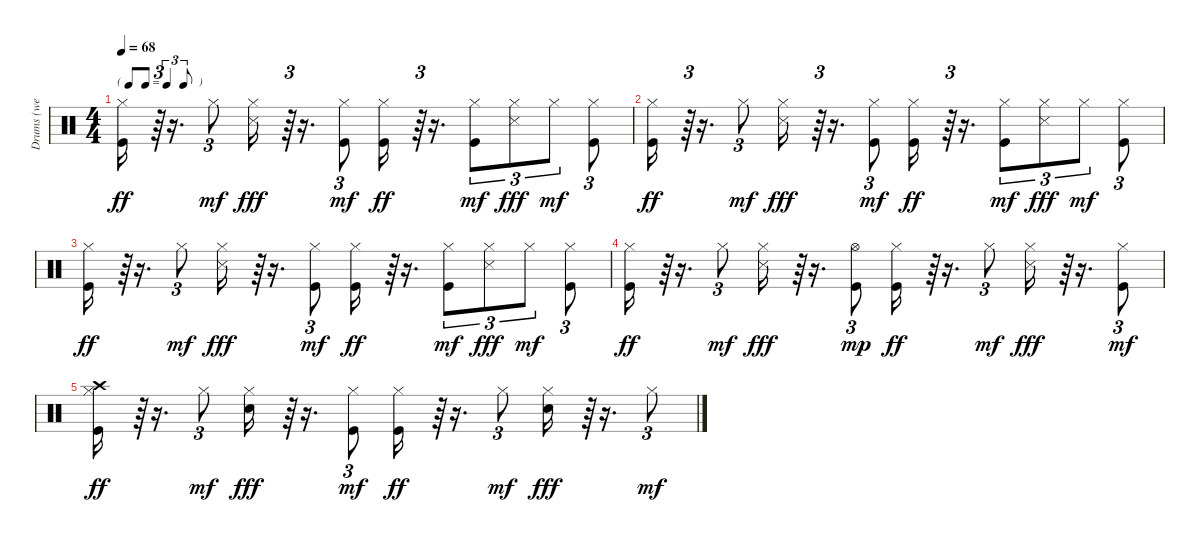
\track (" Drums (well Duh!)" " Drums (we") {instrument percussion}
\staff {score}
\articulation defaults
\ts (4 4)
\tf triplet8th
\tempo 68
\clef neutral
\ks c
("Kick (hit)" "Hi-Hat (closed)").16{dy ff} r.64{tu (3 2)} r.16{d} "Hi-Hat (closed)".8{tu (3 2) dy mf} ("Hi-Hat (closed)" "Snare (side stick) 3").16{dy fff} r.64{tu (3 2)} r.16{d} ("Kick (hit)" "Hi-Hat (closed)").8{tu (3 2) dy mf} ("Kick (hit)" "Hi-Hat (closed)").16{dy ff} r.64{tu (3 2)} r.16{d} ("Kick (hit)" "Hi-Hat (closed)").8{tu (3 2) dy mf} ("Hi-Hat (closed)" "Snare (side stick) 3").8{tu (3 2) dy fff} "Hi-Hat (closed)".8{tu (3 2) dy mf} ("Kick (hit)" "Hi-Hat (closed)").8{tu (3 2)} |
("Kick (hit)" "Hi-Hat (closed)").16{dy ff} r.64{tu (3 2)} r.16{d} "Hi-Hat (closed)".8{tu (3 2) dy mf} ("Hi-Hat (closed)" "Snare (side stick) 3").16{dy fff} r.64{tu (3 2)} r.16{d} ("Kick (hit)" "Hi-Hat (closed)").8{tu (3 2) dy mf} ("Kick (hit)" "Hi-Hat (closed)").16{dy ff} r.64{tu (3 2)} r.16{d} ("Kick (hit)" "Hi-Hat (closed)").8{tu (3 2) dy mf} ("Hi-Hat (closed)" "Snare (side stick) 3").8{tu (3 2) dy fff} "Hi-Hat (closed)".8{tu (3 2) dy mf} ("Kick (hit)" "Hi-Hat (closed)").8{tu (3 2)} |
("Kick (hit)" "Hi-Hat (closed)").16{dy ff} r.64{tu (3 2)} r.16{d} "Hi-Hat (closed)".8{tu (3 2) dy mf} ("Hi-Hat (closed)" "Snare (side stick) 3").16{dy fff} r.64{tu (3 2)} r.16{d} ("Kick (hit)" "Hi-Hat (closed)").8{tu (3 2) dy mf} ("Kick (hit)" "Hi-Hat (closed)").16{dy ff} r.64{tu (3 2)} r.16{d} ("Kick (hit)" "Hi-Hat (closed)").8{tu (3 2) dy mf} ("Hi-Hat (closed)" "Snare (side stick) 3").8{tu (3 2) dy fff} "Hi-Hat (closed)".8{tu (3 2) dy mf} ("Kick (hit)" "Hi-Hat (closed)").8{tu (3 2)} |
("Kick (hit)" "Hi-Hat (closed)").16{dy ff} r.64{tu (3 2)} r.16{d} "Hi-Hat (closed)".8{tu (3 2) dy mf} ("Hi-Hat (closed)" "Snare (side stick) 3").16{dy fff} r.64{tu (3 2)} r.16{d} ("Kick (hit)" "Hi-Hat (open)").8{tu (3 2) dy mp} ("Kick (hit)" "Hi-Hat (closed)").16{dy ff} r.64{tu (3 2)} r.16{d} "Hi-Hat (closed)".8{tu (3 2) dy mf} ("Hi-Hat (closed)" "Snare (side stick) 3").16{dy fff} r.64{tu (3 2)} r.16{d} ("Kick (hit)" "Hi-Hat (closed)").8{tu (3 2) dy mf} |
("Kick (hit)" "Hi-Hat (closed)" "Crash high (hit)").16{dy ff} r.64{tu (3 2)} r.16{d} "Hi-Hat (closed)".8{tu (3 2) dy mf} ("Snare (hit) 2" "Hi-Hat (closed)").16{dy fff} r.64{tu (3 2)} r.16{d} ("Kick (hit)" "Hi-Hat (closed)").8{tu (3 2) dy mf} ("Kick (hit)" "Hi-Hat (closed)").16{dy ff} r.64{tu (3 2)} r.16{d} "Hi-Hat (closed)".8{tu (3 2) dy mf} ("Snare (hit) 2" "Hi-Hat (closed)").16{dy fff} r.64{tu (3 2)} r.16{d} "Hi-Hat (closed)".8{tu (3 2) dy mf}
